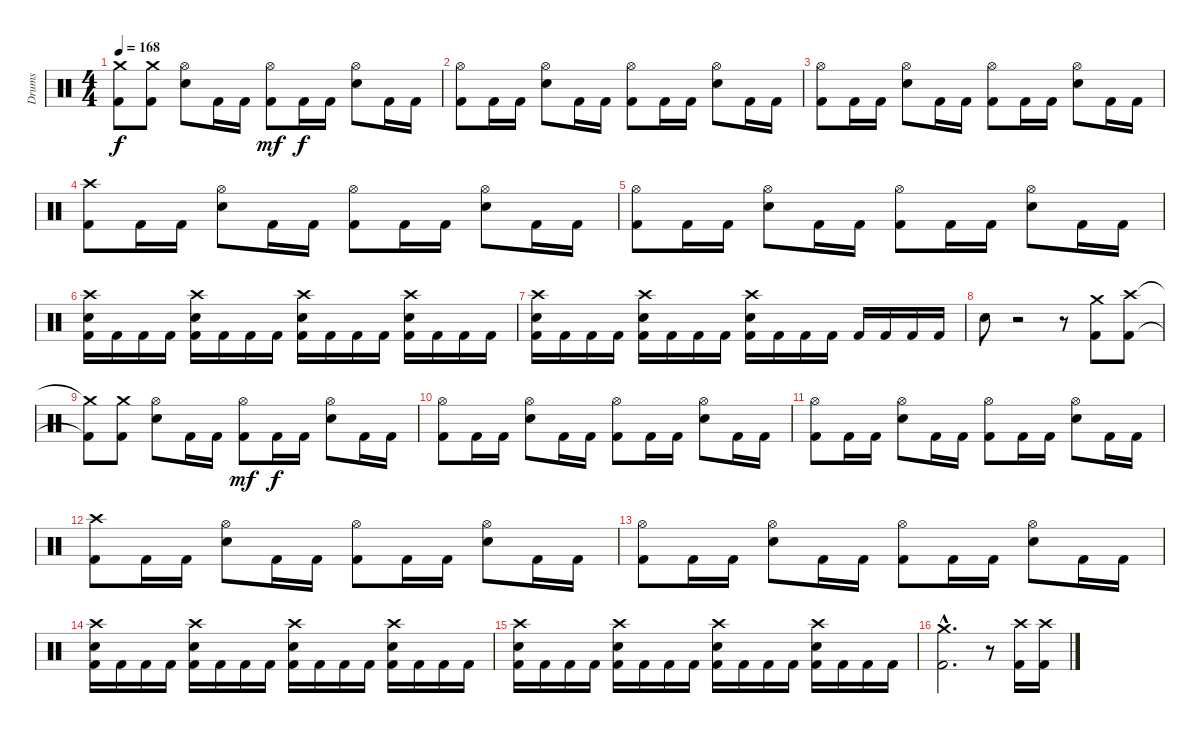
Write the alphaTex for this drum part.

\track ("Drums" "Drums") {instrument percussion}
\staff {score}
\articulation defaults
\ts (4 4)
\tempo 168
\clef neutral
\ks c
("Kick (hit) 2"{t} "Crash medium (hit)"{t}).8{dy f} ("Kick (hit) 2" "Crash medium (hit)").8 ("Electric Snare (hit)" "Hi-Hat (open)").8 "Kick (hit) 2".16 "Kick (hit) 2".16 ("Kick (hit) 2" "Hi-Hat (open)").8{dy mf} "Kick (hit) 2".16{dy f} "Kick (hit) 2".16 ("Electric Snare (hit)" "Hi-Hat (open)").8 "Kick (hit) 2".16 "Kick (hit) 2".16 |
("Kick (hit) 2" "Hi-Hat (open)").8 "Kick (hit) 2".16 "Kick (hit) 2".16 ("Electric Snare (hit)" "Hi-Hat (open)").8 "Kick (hit) 2".16 "Kick (hit) 2".16 ("Kick (hit) 2" "Hi-Hat (open)").8 "Kick (hit) 2".16 "Kick (hit) 2".16 ("Electric Snare (hit)" "Hi-Hat (open)").8 "Kick (hit) 2".16 "Kick (hit) 2".16 |
("Kick (hit) 2" "Hi-Hat (open)").8 "Kick (hit) 2".16 "Kick (hit) 2".16 ("Electric Snare (hit)" "Hi-Hat (open)").8 "Kick (hit) 2".16 "Kick (hit) 2".16 ("Kick (hit) 2" "Hi-Hat (open)").8 "Kick (hit) 2".16 "Kick (hit) 2".16 ("Electric Snare (hit)" "Hi-Hat (open)").8 "Kick (hit) 2".16 "Kick (hit) 2".16 |
("Kick (hit) 2" "Crash high (hit)").8 "Kick (hit) 2".16 "Kick (hit) 2".16 ("Electric Snare (hit)" "Hi-Hat (open)").8 "Kick (hit) 2".16 "Kick (hit) 2".16 ("Kick (hit) 2" "Hi-Hat (open)").8 "Kick (hit) 2".16 "Kick (hit) 2".16 ("Electric Snare (hit)" "Hi-Hat (open)").8 "Kick (hit) 2".16 "Kick (hit) 2".16 |
("Kick (hit) 2" "Hi-Hat (open)").8 "Kick (hit) 2".16 "Kick (hit) 2".16 ("Electric Snare (hit)" "Hi-Hat (open)").8 "Kick (hit) 2".16 "Kick (hit) 2".16 ("Kick (hit) 2" "Hi-Hat (open)").8 "Kick (hit) 2".16 "Kick (hit) 2".16 ("Electric Snare (hit)" "Hi-Hat (open)").8 "Kick (hit) 2".16 "Kick (hit) 2".16 |
("Kick (hit) 2" "Electric Snare (hit)" "Crash high (hit)").16 "Kick (hit) 2".16 "Kick (hit) 2".16 "Kick (hit) 2".16 ("Kick (hit) 2" "Electric Snare (hit)" "Crash high (hit)").16 "Kick (hit) 2".16 "Kick (hit) 2".16 "Kick (hit) 2".16 ("Kick (hit) 2" "Electric Snare (hit)" "Crash high (hit)").16 "Kick (hit) 2".16 "Kick (hit) 2".16 "Kick (hit) 2".16 ("Kick (hit) 2" "Electric Snare (hit)" "Crash high (hit)").16 "Kick (hit) 2".16 "Kick (hit) 2".16 "Kick (hit) 2".16 |
("Kick (hit) 2" "Electric Snare (hit)" "Crash high (hit)").16 "Kick (hit) 2".16 "Kick (hit) 2".16 "Kick (hit) 2".16 ("Kick (hit) 2" "Electric Snare (hit)" "Crash high (hit)").16 "Kick (hit) 2".16 "Kick (hit) 2".16 "Kick (hit) 2".16 ("Kick (hit) 2" "Electric Snare (hit)" "Crash high (hit)").16 "Kick (hit) 2".16 "Kick (hit) 2".16 "Kick (hit) 2".16 "Kick (hit) 2".16 "Kick (hit) 2".16 "Kick (hit) 2".16 "Kick (hit) 2".16 |
\section ("" "")
"Electric Snare (hit)".8 r.2 r.8 ("Kick (hit) 2" "Crash medium (hit)").8 ("Kick (hit) 2" "Crash high (hit)").8 |
("Kick (hit) 2"{t} "Crash medium (hit)"{t}).8 ("Kick (hit) 2" "Crash medium (hit)").8 ("Electric Snare (hit)" "Hi-Hat (open)").8 "Kick (hit) 2".16 "Kick (hit) 2".16 ("Kick (hit) 2" "Hi-Hat (open)").8{dy mf} "Kick (hit) 2".16{dy f} "Kick (hit) 2".16 ("Electric Snare (hit)" "Hi-Hat (open)").8 "Kick (hit) 2".16 "Kick (hit) 2".16 |
("Kick (hit) 2" "Hi-Hat (open)").8 "Kick (hit) 2".16 "Kick (hit) 2".16 ("Electric Snare (hit)" "Hi-Hat (open)").8 "Kick (hit) 2".16 "Kick (hit) 2".16 ("Kick (hit) 2" "Hi-Hat (open)").8 "Kick (hit) 2".16 "Kick (hit) 2".16 ("Electric Snare (hit)" "Hi-Hat (open)").8 "Kick (hit) 2".16 "Kick (hit) 2".16 |
("Kick (hit) 2" "Hi-Hat (open)").8 "Kick (hit) 2".16 "Kick (hit) 2".16 ("Electric Snare (hit)" "Hi-Hat (open)").8 "Kick (hit) 2".16 "Kick (hit) 2".16 ("Kick (hit) 2" "Hi-Hat (open)").8 "Kick (hit) 2".16 "Kick (hit) 2".16 ("Electric Snare (hit)" "Hi-Hat (open)").8 "Kick (hit) 2".16 "Kick (hit) 2".16 |
("Kick (hit) 2" "Crash high (hit)").8 "Kick (hit) 2".16 "Kick (hit) 2".16 ("Electric Snare (hit)" "Hi-Hat (open)").8 "Kick (hit) 2".16 "Kick (hit) 2".16 ("Kick (hit) 2" "Hi-Hat (open)").8 "Kick (hit) 2".16 "Kick (hit) 2".16 ("Electric Snare (hit)" "Hi-Hat (open)").8 "Kick (hit) 2".16 "Kick (hit) 2".16 |
("Kick (hit) 2" "Hi-Hat (open)").8 "Kick (hit) 2".16 "Kick (hit) 2".16 ("Electric Snare (hit)" "Hi-Hat (open)").8 "Kick (hit) 2".16 "Kick (hit) 2".16 ("Kick (hit) 2" "Hi-Hat (open)").8 "Kick (hit) 2".16 "Kick (hit) 2".16 ("Electric Snare (hit)" "Hi-Hat (open)").8 "Kick (hit) 2".16 "Kick (hit) 2".16 |
("Kick (hit) 2" "Electric Snare (hit)" "Crash high (hit)").16 "Kick (hit) 2".16 "Kick (hit) 2".16 "Kick (hit) 2".16 ("Kick (hit) 2" "Electric Snare (hit)" "Crash high (hit)").16 "Kick (hit) 2".16 "Kick (hit) 2".16 "Kick (hit) 2".16 ("Kick (hit) 2" "Electric Snare (hit)" "Crash high (hit)").16 "Kick (hit) 2".16 "Kick (hit) 2".16 "Kick (hit) 2".16 ("Kick (hit) 2" "Electric Snare (hit)" "Crash high (hit)").16 "Kick (hit) 2".16 "Kick (hit) 2".16 "Kick (hit) 2".16 |
("Kick (hit) 2" "Electric Snare (hit)" "Crash high (hit)").16 "Kick (hit) 2".16 "Kick (hit) 2".16 "Kick (hit) 2".16 ("Kick (hit) 2" "Electric Snare (hit)" "Crash high (hit)").16 "Kick (hit) 2".16 "Kick (hit) 2".16 "Kick (hit) 2".16 ("Kick (hit) 2" "Electric Snare (hit)" "Crash high (hit)").16 "Kick (hit) 2".16 "Kick (hit) 2".16 "Kick (hit) 2".16 ("Kick (hit) 2" "Electric Snare (hit)" "Crash high (hit)").16 "Kick (hit) 2".16 "Kick (hit) 2".16 "Kick (hit) 2".16 |
("Kick (hit) 2"{hac} "Crash medium (hit)"{hac}).2{d} r.8 ("Kick (hit) 2" "Crash high (hit)").16 ("Kick (hit) 2" "Crash high (hit)").16
